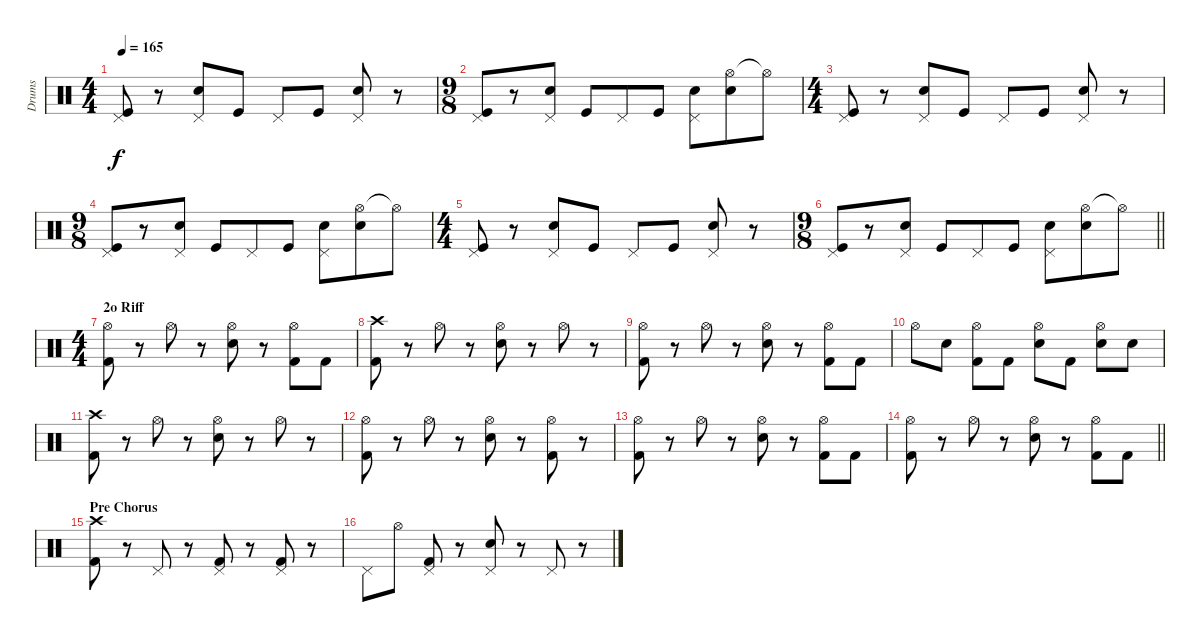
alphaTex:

\track ("Drums" "Drums") {instrument percussion}
\staff {score}
\articulation defaults
\ts (4 4)
\tempo 165
\clef neutral
\ks c
("Pedal Hi-Hat (hit)" "Kick (hit)").8{dy f} r.8 ("Pedal Hi-Hat (hit)" "Electric Snare (hit)").8 "Kick (hit)".8 "Pedal Hi-Hat (hit)".8 "Kick (hit)".8 ("Pedal Hi-Hat (hit)" "Electric Snare (hit)").8 r.8 |
\ts (9 8)
("Pedal Hi-Hat (hit)" "Kick (hit)").8 r.8 ("Pedal Hi-Hat (hit)" "Electric Snare (hit)").8 "Kick (hit)".8 "Pedal Hi-Hat (hit)".8 "Kick (hit)".8 ("Pedal Hi-Hat (hit)" "Electric Snare (hit)").8 ("Hi-Hat (open)" "Electric Snare (hit)").8 "Hi-Hat (open)"{t}.8 |
\ts (4 4)
("Pedal Hi-Hat (hit)" "Kick (hit)").8 r.8 ("Pedal Hi-Hat (hit)" "Electric Snare (hit)").8 "Kick (hit)".8 "Pedal Hi-Hat (hit)".8 "Kick (hit)".8 ("Pedal Hi-Hat (hit)" "Electric Snare (hit)").8 r.8 |
\ts (9 8)
("Pedal Hi-Hat (hit)" "Kick (hit)").8 r.8 ("Pedal Hi-Hat (hit)" "Electric Snare (hit)").8 "Kick (hit)".8 "Pedal Hi-Hat (hit)".8 "Kick (hit)".8 ("Pedal Hi-Hat (hit)" "Electric Snare (hit)").8 ("Hi-Hat (open)" "Electric Snare (hit)").8 "Hi-Hat (open)"{t}.8 |
\ts (4 4)
("Pedal Hi-Hat (hit)" "Kick (hit)").8 r.8 ("Pedal Hi-Hat (hit)" "Electric Snare (hit)").8 "Kick (hit)".8 "Pedal Hi-Hat (hit)".8 "Kick (hit)".8 ("Pedal Hi-Hat (hit)" "Electric Snare (hit)").8 r.8 |
\ts (9 8)
\barLineRight lightlight
("Pedal Hi-Hat (hit)" "Kick (hit)").8 r.8 ("Pedal Hi-Hat (hit)" "Electric Snare (hit)").8 "Kick (hit)".8 "Pedal Hi-Hat (hit)".8 "Kick (hit)".8 ("Pedal Hi-Hat (hit)" "Electric Snare (hit)").8 ("Hi-Hat (open)" "Electric Snare (hit)").8 "Hi-Hat (open)"{t}.8 |
\ts (4 4)
\section ("" "2o Riff")
("Hi-Hat (open)" "Kick (hit) 2").8 r.8 "Hi-Hat (open)".8 r.8 ("Hi-Hat (open)" "Electric Snare (hit)").8 r.8 ("Hi-Hat (open)" "Kick (hit) 2").8 "Kick (hit) 2".8 |
("Crash high (hit)" "Kick (hit) 2").8 r.8 "Hi-Hat (open)".8 r.8 ("Hi-Hat (open)" "Electric Snare (hit)").8 r.8 "Hi-Hat (open)".8 r.8 |
("Hi-Hat (open)" "Kick (hit) 2").8 r.8 "Hi-Hat (open)".8 r.8 ("Hi-Hat (open)" "Electric Snare (hit)").8 r.8 ("Hi-Hat (open)" "Kick (hit) 2").8 "Kick (hit) 2".8 |
"Hi-Hat (open)".8 "Electric Snare (hit)".8 ("Hi-Hat (open)" "Kick (hit) 2").8 "Kick (hit) 2".8 ("Hi-Hat (open)" "Electric Snare (hit)").8 "Kick (hit) 2".8 ("Hi-Hat (open)" "Electric Snare (hit)").8 "Electric Snare (hit)".8 |
("Crash high (hit)" "Kick (hit) 2").8 r.8 "Hi-Hat (open)".8 r.8 ("Hi-Hat (open)" "Electric Snare (hit)").8 r.8 "Hi-Hat (open)".8 r.8 |
("Hi-Hat (open)" "Kick (hit) 2").8 r.8 "Hi-Hat (open)".8 r.8 ("Hi-Hat (open)" "Electric Snare (hit)").8 r.8 ("Hi-Hat (open)" "Kick (hit) 2").8 r.8 |
("Hi-Hat (open)" "Kick (hit) 2").8 r.8 "Hi-Hat (open)".8 r.8 ("Hi-Hat (open)" "Electric Snare (hit)").8 r.8 ("Hi-Hat (open)" "Kick (hit) 2").8 "Kick (hit) 2".8 |
\barLineRight lightlight
("Hi-Hat (open)" "Kick (hit) 2").8 r.8 "Hi-Hat (open)".8 r.8 ("Hi-Hat (open)" "Electric Snare (hit)").8 r.8 ("Hi-Hat (open)" "Kick (hit) 2").8 "Kick (hit) 2".8 |
\section ("" "Pre Chorus")
("Crash high (hit)" "Kick (hit) 2").8 r.8 "Pedal Hi-Hat (hit)".8 r.8 ("Pedal Hi-Hat (hit)" "Kick (hit) 2").8 r.8 ("Pedal Hi-Hat (hit)" "Kick (hit) 2").8 r.8 |
"Pedal Hi-Hat (hit)".8 "Hi-Hat (open)".8 ("Pedal Hi-Hat (hit)" "Kick (hit) 2").8 r.8 ("Pedal Hi-Hat (hit)" "Electric Snare (hit)").8 r.8 "Pedal Hi-Hat (hit)".8 r.8
